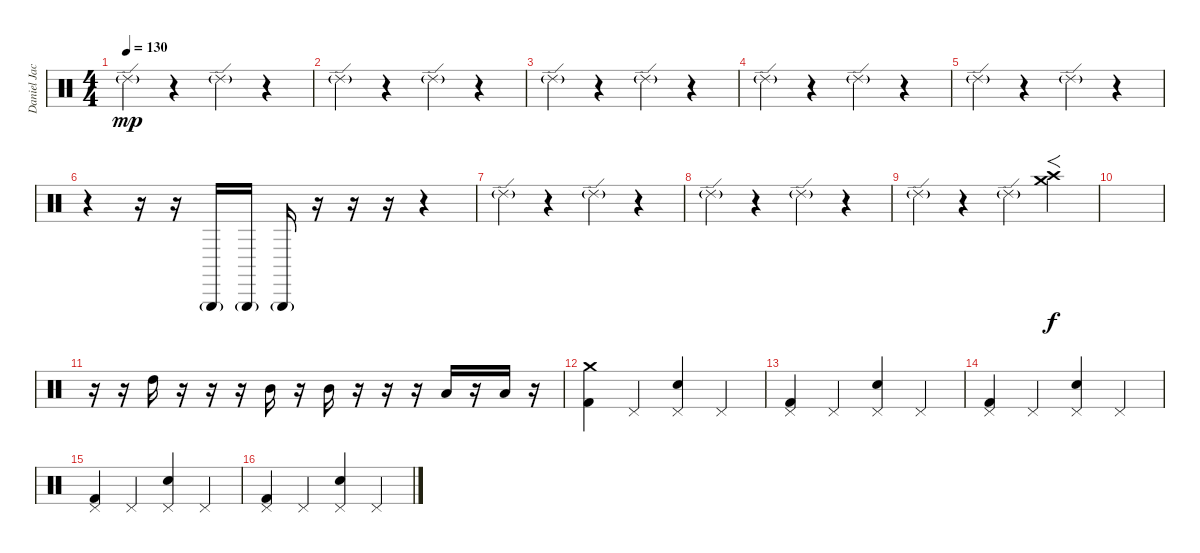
\track ("Daniel Jacques Louis " "Daniel Jac") {instrument percussion}
\staff {score}
\articulation defaults
\ts (4 4)
\tempo 130
\clef neutral
\ks c "Ride (edge) 2"{g}.4{dy mp}
r.4 "Ride (edge) 2"{g}.4 r.4 |
"Ride (edge) 2"{g}.4 r.4 "Ride (edge) 2"{g}.4 r.4 |
"Ride (edge) 2"{g}.4 r.4 "Ride (edge) 2"{g}.4 r.4 |
"Ride (edge) 2"{g}.4 r.4 "Ride (edge) 2"{g}.4 r.4 |
"Ride (edge) 2"{g}.4 r.4 "Ride (edge) 2"{g}.4 r.4 |
r.4 r.16 r.16 "Triangle (hit)"{g}.16 "Triangle (hit)"{g}.16 "Triangle (hit)"{g}.16 r.16 r.16 r.16 r.4 |
"Ride (edge) 2"{g}.4 r.4 "Ride (edge) 2"{g}.4 r.4 |
"Ride (edge) 2"{g}.4 r.4 "Ride (edge) 2"{g}.4 r.4 |
"Ride (edge) 2"{g}.4 r.4 "Ride (edge) 2"{g}.4 ("Crash high (hit)" "Crash medium (hit)").4{f dy f} |
|
r.16 r.16 "High Tom (hit)".16 r.16 r.16 r.16 "Mid Tom (hit)".16 r.16 "Mid Tom (hit)".16 r.16 r.16 r.16 "Low Tom (hit)".16 r.16 "Low Tom (hit)".16 r.16 |
("Kick (hit) 2" "Crash medium (hit)").4 "Pedal Hi-Hat (hit)".4 ("Pedal Hi-Hat (hit)" "Electric Snare (hit)").4 "Pedal Hi-Hat (hit)".4 |
("Pedal Hi-Hat (hit)" "Kick (hit) 2").4 "Pedal Hi-Hat (hit)".4 ("Pedal Hi-Hat (hit)" "Electric Snare (hit)").4 "Pedal Hi-Hat (hit)".4 |
("Pedal Hi-Hat (hit)" "Kick (hit) 2").4 "Pedal Hi-Hat (hit)".4 ("Pedal Hi-Hat (hit)" "Electric Snare (hit)").4 "Pedal Hi-Hat (hit)".4 |
("Pedal Hi-Hat (hit)" "Kick (hit) 2").4 "Pedal Hi-Hat (hit)".4 ("Pedal Hi-Hat (hit)" "Electric Snare (hit)").4 "Pedal Hi-Hat (hit)".4 |
("Pedal Hi-Hat (hit)" "Kick (hit) 2").4 "Pedal Hi-Hat (hit)".4 ("Pedal Hi-Hat (hit)" "Electric Snare (hit)").4 "Pedal Hi-Hat (hit)".4
